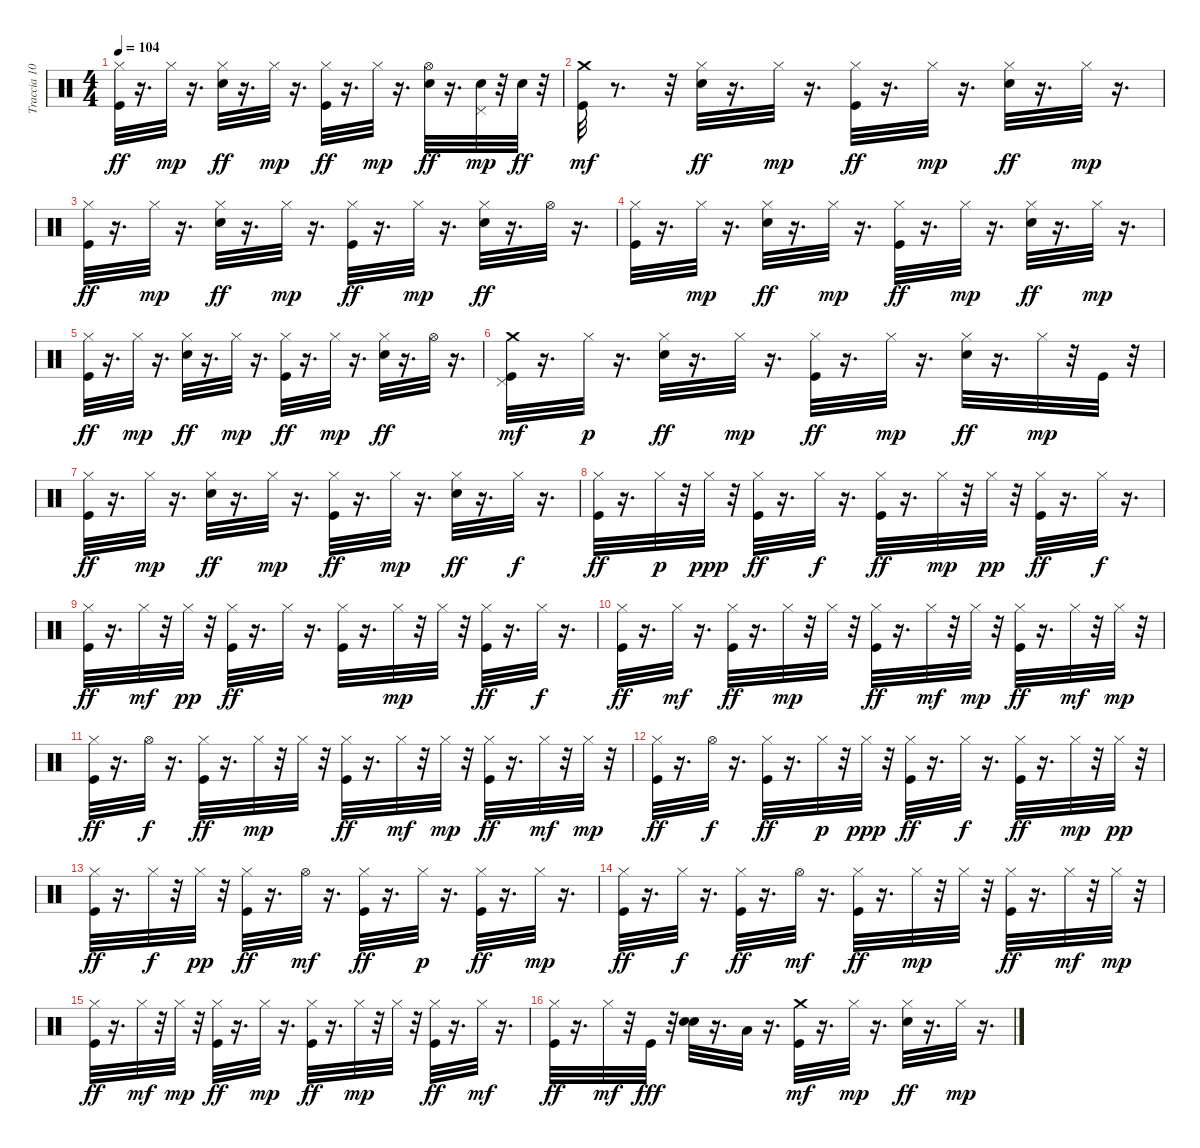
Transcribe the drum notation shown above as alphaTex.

\track ("Traccia 10" "Traccia 10") {instrument percussion}
\staff {score}
\articulation defaults
\ts (4 4)
\tempo 104
\clef neutral
\ks c
("Kick (hit)" "Hi-Hat (closed)").32{dy ff} r.16{d} "Hi-Hat (closed)".32{dy mp} r.16{d} ("Snare (hit) 2" "Hi-Hat (closed)").32{dy ff} r.16{d} "Hi-Hat (closed)".32{dy mp} r.16{d} ("Kick (hit)" "Hi-Hat (closed)").32{dy ff} r.16{d} "Hi-Hat (closed)".32{dy mp} r.16{d} ("Snare (hit) 2" "Hi-Hat (open)").32{dy ff} r.16{d} ("Snare (hit) 2" "Pedal Hi-Hat (hit)").32{dy mp} r.32 "Snare (hit) 2".32{dy ff} r.32 |
("Kick (hit)" "Crash medium (hit)").32{dy mf} r.8{d} r.32 ("Snare (hit) 2" "Hi-Hat (closed)").32{dy ff} r.16{d} "Hi-Hat (closed)".32{dy mp} r.16{d} ("Kick (hit)" "Hi-Hat (closed)").32{dy ff} r.16{d} "Hi-Hat (closed)".32{dy mp} r.16{d} ("Snare (hit) 2" "Hi-Hat (closed)").32{dy ff} r.16{d} "Hi-Hat (closed)".32{dy mp} r.16{d} |
("Kick (hit)" "Hi-Hat (closed)").32{dy ff} r.16{d} "Hi-Hat (closed)".32{dy mp} r.16{d} ("Snare (hit) 2" "Hi-Hat (closed)").32{dy ff} r.16{d} "Hi-Hat (closed)".32{dy mp} r.16{d} ("Kick (hit)" "Hi-Hat (closed)").32{dy ff} r.16{d} "Hi-Hat (closed)".32{dy mp} r.16{d} ("Snare (hit) 2" "Hi-Hat (closed)").32{dy ff} r.16{d} "Hi-Hat (open)".32 r.16{d} |
("Kick (hit)" "Hi-Hat (closed)").32 r.16{d} "Hi-Hat (closed)".32{dy mp} r.16{d} ("Snare (hit) 2" "Hi-Hat (closed)").32{dy ff} r.16{d} "Hi-Hat (closed)".32{dy mp} r.16{d} ("Kick (hit)" "Hi-Hat (closed)").32{dy ff} r.16{d} "Hi-Hat (closed)".32{dy mp} r.16{d} ("Snare (hit) 2" "Hi-Hat (closed)").32{dy ff} r.16{d} "Hi-Hat (closed)".32{dy mp} r.16{d} |
("Kick (hit)" "Hi-Hat (closed)").32{dy ff} r.16{d} "Hi-Hat (closed)".32{dy mp} r.16{d} ("Snare (hit) 2" "Hi-Hat (closed)").32{dy ff} r.16{d} "Hi-Hat (closed)".32{dy mp} r.16{d} ("Kick (hit)" "Hi-Hat (closed)").32{dy ff} r.16{d} "Hi-Hat (closed)".32{dy mp} r.16{d} ("Snare (hit) 2" "Hi-Hat (closed)").32{dy ff} r.16{d} "Hi-Hat (open)".32 r.16{d} |
("Kick (hit)" "Pedal Hi-Hat (hit)" "Crash medium (hit)").32{dy mf} r.16{d} "Hi-Hat (closed)".32{dy p} r.16{d} ("Snare (hit) 2" "Hi-Hat (closed)").32{dy ff} r.16{d} "Hi-Hat (closed)".32{dy mp} r.16{d} ("Kick (hit)" "Hi-Hat (closed)").32{dy ff} r.16{d} "Hi-Hat (closed)".32{dy mp} r.16{d} ("Snare (hit) 2" "Hi-Hat (closed)").32{dy ff} r.16{d} "Hi-Hat (closed)".32{dy mp} r.32 "Kick (hit)".32 r.32 |
("Kick (hit)" "Hi-Hat (closed)").32{dy ff} r.16{d} "Hi-Hat (closed)".32{dy mp} r.16{d} ("Snare (hit) 2" "Hi-Hat (closed)").32{dy ff} r.16{d} "Hi-Hat (closed)".32{dy mp} r.16{d} ("Kick (hit)" "Hi-Hat (closed)").32{dy ff} r.16{d} "Hi-Hat (closed)".32{dy mp} r.16{d} ("Snare (hit) 2" "Hi-Hat (closed)").32{dy ff} r.16{d} "Hi-Hat (closed)".32{dy f} r.16{d} |
("Kick (hit)" "Hi-Hat (closed)").32{dy ff} r.16{d} "Hi-Hat (closed)".32{dy p} r.32 "Hi-Hat (closed)".32{dy ppp} r.32 ("Kick (hit)" "Hi-Hat (closed)").32{dy ff} r.16{d} "Hi-Hat (closed)".32{dy f} r.16{d} ("Kick (hit)" "Hi-Hat (closed)").32{dy ff} r.16{d} "Hi-Hat (closed)".32{dy mp} r.32 "Hi-Hat (closed)".32{dy pp} r.32 ("Kick (hit)" "Hi-Hat (closed)").32{dy ff} r.16{d} "Hi-Hat (closed)".32{dy f} r.16{d} |
("Kick (hit)" "Hi-Hat (closed)").32{dy ff} r.16{d} "Hi-Hat (closed)".32{dy mf} r.32 "Hi-Hat (closed)".32{dy pp} r.32 ("Kick (hit)" "Hi-Hat (closed)").32{dy ff} r.16{d} "Hi-Hat (closed)".32 r.16{d} ("Kick (hit)" "Hi-Hat (closed)").32 r.16{d} "Hi-Hat (closed)".32{dy mp} r.32 "Hi-Hat (closed)".32 r.32 ("Kick (hit)" "Hi-Hat (closed)").32{dy ff} r.16{d} "Hi-Hat (closed)".32{dy f} r.16{d} |
("Kick (hit)" "Hi-Hat (closed)").32{dy ff} r.16{d} "Hi-Hat (closed)".32{dy mf} r.16{d} ("Kick (hit)" "Hi-Hat (closed)").32{dy ff} r.16{d} "Hi-Hat (closed)".32{dy mp} r.32 "Hi-Hat (closed)".32 r.32 ("Kick (hit)" "Hi-Hat (closed)").32{dy ff} r.16{d} "Hi-Hat (closed)".32{dy mf} r.32 "Hi-Hat (closed)".32{dy mp} r.32 ("Kick (hit)" "Hi-Hat (closed)").32{dy ff} r.16{d} "Hi-Hat (closed)".32{dy mf} r.32 "Hi-Hat (closed)".32{dy mp} r.32 |
("Kick (hit)" "Hi-Hat (closed)").32{dy ff} r.16{d} "Hi-Hat (open)".32{dy f} r.16{d} ("Kick (hit)" "Hi-Hat (closed)").32{dy ff} r.16{d} "Hi-Hat (closed)".32{dy mp} r.32 "Hi-Hat (closed)".32 r.32 ("Kick (hit)" "Hi-Hat (closed)").32{dy ff} r.16{d} "Hi-Hat (closed)".32{dy mf} r.32 "Hi-Hat (closed)".32{dy mp} r.32 ("Kick (hit)" "Hi-Hat (closed)").32{dy ff} r.16{d} "Hi-Hat (closed)".32{dy mf} r.32 "Hi-Hat (closed)".32{dy mp} r.32 |
("Kick (hit)" "Hi-Hat (closed)").32{dy ff} r.16{d} "Hi-Hat (open)".32{dy f} r.16{d} ("Kick (hit)" "Hi-Hat (closed)").32{dy ff} r.16{d} "Hi-Hat (closed)".32{dy p} r.32 "Hi-Hat (closed)".32{dy ppp} r.32 ("Kick (hit)" "Hi-Hat (closed)").32{dy ff} r.16{d} "Hi-Hat (closed)".32{dy f} r.16{d} ("Kick (hit)" "Hi-Hat (closed)").32{dy ff} r.16{d} "Hi-Hat (closed)".32{dy mp} r.32 "Hi-Hat (closed)".32{dy pp} r.32 |
("Kick (hit)" "Hi-Hat (closed)").32{dy ff} r.16{d} "Hi-Hat (closed)".32{dy f} r.32 "Hi-Hat (closed)".32{dy pp} r.32 ("Kick (hit)" "Hi-Hat (closed)").32{dy ff} r.16{d} "Hi-Hat (open)".32{dy mf} r.16{d} ("Kick (hit)" "Hi-Hat (closed)").32{dy ff} r.16{d} "Hi-Hat (closed)".32{dy p} r.16{d} ("Kick (hit)" "Hi-Hat (closed)").32{dy ff} r.16{d} "Hi-Hat (closed)".32{dy mp} r.16{d} |
("Kick (hit)" "Hi-Hat (closed)").32{dy ff} r.16{d} "Hi-Hat (closed)".32{dy f} r.16{d} ("Kick (hit)" "Hi-Hat (closed)").32{dy ff} r.16{d} "Hi-Hat (open)".32{dy mf} r.16{d} ("Kick (hit)" "Hi-Hat (closed)").32{dy ff} r.16{d} "Hi-Hat (closed)".32{dy mp} r.32 "Hi-Hat (closed)".32 r.32 ("Kick (hit)" "Hi-Hat (closed)").32{dy ff} r.16{d} "Hi-Hat (closed)".32{dy mf} r.32 "Hi-Hat (closed)".32{dy mp} r.32 |
("Kick (hit)" "Hi-Hat (closed)").32{dy ff} r.16{d} "Hi-Hat (closed)".32{dy mf} r.32 "Hi-Hat (closed)".32{dy mp} r.32 ("Kick (hit)" "Hi-Hat (closed)").32{dy ff} r.16{d} "Hi-Hat (closed)".32{dy mp} r.16{d} ("Kick (hit)" "Hi-Hat (closed)").32{dy ff} r.16{d} "Hi-Hat (closed)".32{dy mp} r.32 "Hi-Hat (closed)".32 r.32 ("Kick (hit)" "Hi-Hat (closed)").32{dy ff} r.16{d} "Hi-Hat (closed)".32{dy mf} r.16{d} |
("Kick (hit)" "Hi-Hat (closed)").32{dy ff} r.16{d} "Hi-Hat (closed)".32{dy mf} r.32 "Kick (hit)".32{dy fff} r.32 ("Snare (hit) 2" "Snare (hit) 2").32 r.16{d} "Low Tom (hit)".32 r.16{d} ("Kick (hit)" "Crash medium (hit)").32{dy mf} r.16{d} "Hi-Hat (closed)".32{dy mp} r.16{d} ("Snare (hit) 2" "Hi-Hat (closed)").32{dy ff} r.16{d} "Hi-Hat (closed)".32{dy mp} r.16{d}
